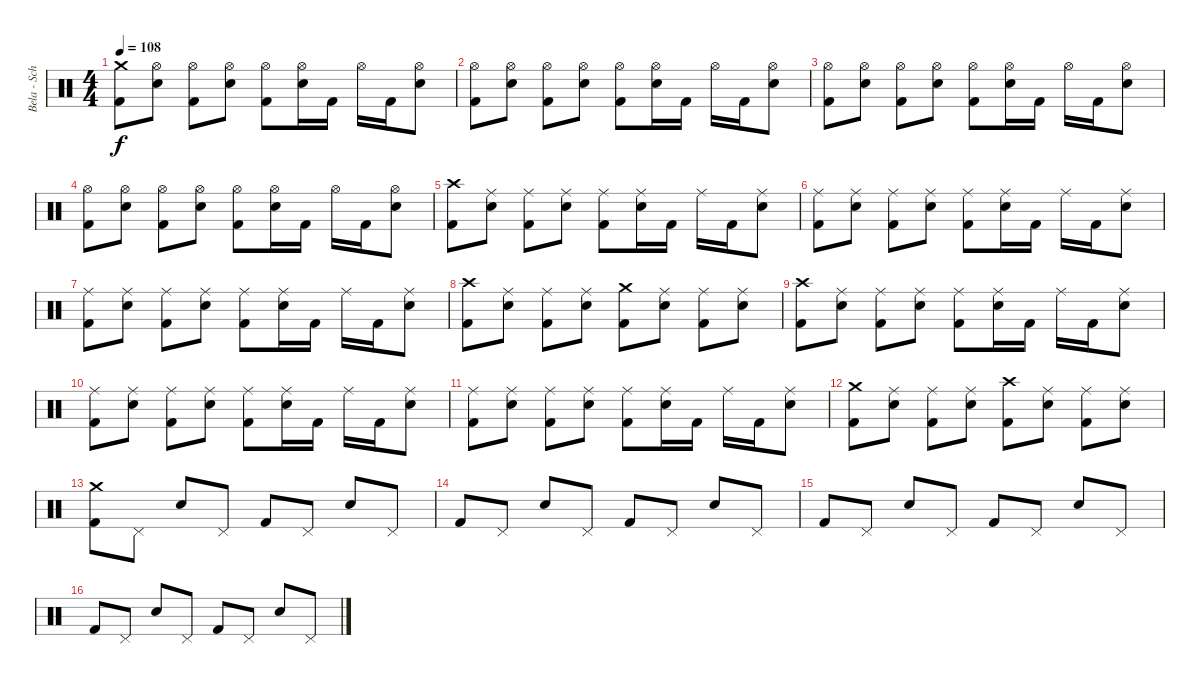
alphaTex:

\track ("Bela - Schlagzeug" "Bela - Sch") {instrument percussion}
\staff {score}
\articulation defaults
\ts (4 4)
\tempo 108
\clef neutral
\ks c
("Crash medium (hit)" "Kick (hit) 2").8{dy f} ("Hi-Hat (open)" "Snare (hit) 2").8 ("Hi-Hat (open)" "Kick (hit) 2").8 ("Hi-Hat (open)" "Snare (hit) 2").8 ("Hi-Hat (open)" "Kick (hit) 2").8 ("Hi-Hat (open)" "Snare (hit) 2").16 "Kick (hit) 2".16 "Hi-Hat (open)".16 "Kick (hit) 2".16 ("Hi-Hat (open)" "Snare (hit) 2").8 |
("Hi-Hat (open)" "Kick (hit) 2").8 ("Hi-Hat (open)" "Snare (hit) 2").8 ("Hi-Hat (open)" "Kick (hit) 2").8 ("Hi-Hat (open)" "Snare (hit) 2").8 ("Hi-Hat (open)" "Kick (hit) 2").8 ("Hi-Hat (open)" "Snare (hit) 2").16 "Kick (hit) 2".16 "Hi-Hat (open)".16 "Kick (hit) 2".16 ("Hi-Hat (open)" "Snare (hit) 2").8 |
("Hi-Hat (open)" "Kick (hit) 2").8 ("Hi-Hat (open)" "Snare (hit) 2").8 ("Hi-Hat (open)" "Kick (hit) 2").8 ("Hi-Hat (open)" "Snare (hit) 2").8 ("Hi-Hat (open)" "Kick (hit) 2").8 ("Hi-Hat (open)" "Snare (hit) 2").16 "Kick (hit) 2".16 "Hi-Hat (open)".16 "Kick (hit) 2".16 ("Hi-Hat (open)" "Snare (hit) 2").8 |
("Hi-Hat (open)" "Kick (hit) 2").8 ("Hi-Hat (open)" "Snare (hit) 2").8 ("Hi-Hat (open)" "Kick (hit) 2").8 ("Hi-Hat (open)" "Snare (hit) 2").8 ("Hi-Hat (open)" "Kick (hit) 2").8 ("Hi-Hat (open)" "Snare (hit) 2").16 "Kick (hit) 2".16 "Hi-Hat (open)".16 "Kick (hit) 2".16 ("Hi-Hat (open)" "Snare (hit) 2").8 |
("Crash high (hit)" "Kick (hit) 2").8 ("Ride (middle)" "Snare (hit) 2").8 ("Ride (middle)" "Kick (hit) 2").8 ("Ride (middle)" "Snare (hit) 2").8 ("Ride (middle)" "Kick (hit) 2").8 ("Ride (middle)" "Snare (hit) 2").16 "Kick (hit) 2".16 "Ride (middle)".16 "Kick (hit) 2".16 ("Ride (middle)" "Snare (hit) 2").8 |
("Ride (middle)" "Kick (hit) 2").8 ("Ride (middle)" "Snare (hit) 2").8 ("Ride (middle)" "Kick (hit) 2").8 ("Ride (middle)" "Snare (hit) 2").8 ("Ride (middle)" "Kick (hit) 2").8 ("Ride (middle)" "Snare (hit) 2").16 "Kick (hit) 2".16 "Ride (middle)".16 "Kick (hit) 2".16 ("Ride (middle)" "Snare (hit) 2").8 |
("Ride (middle)" "Kick (hit) 2").8 ("Ride (middle)" "Snare (hit) 2").8 ("Ride (middle)" "Kick (hit) 2").8 ("Ride (middle)" "Snare (hit) 2").8 ("Ride (middle)" "Kick (hit) 2").8 ("Ride (middle)" "Snare (hit) 2").16 "Kick (hit) 2".16 "Ride (middle)".16 "Kick (hit) 2".16 ("Ride (middle)" "Snare (hit) 2").8 |
("Crash high (hit)" "Kick (hit) 2").8 ("Ride (middle)" "Snare (hit) 2").8 ("Ride (middle)" "Kick (hit) 2").8 ("Ride (middle)" "Snare (hit) 2").8 ("Crash medium (hit)" "Kick (hit) 2").8 ("Ride (middle)" "Snare (hit) 2").8 ("Ride (middle)" "Kick (hit) 2").8 ("Ride (middle)" "Snare (hit) 2").8 |
("Crash high (hit)" "Kick (hit) 2").8 ("Ride (middle)" "Snare (hit) 2").8 ("Ride (middle)" "Kick (hit) 2").8 ("Ride (middle)" "Snare (hit) 2").8 ("Ride (middle)" "Kick (hit) 2").8 ("Ride (middle)" "Snare (hit) 2").16 "Kick (hit) 2".16 "Ride (middle)".16 "Kick (hit) 2".16 ("Ride (middle)" "Snare (hit) 2").8 |
("Ride (middle)" "Kick (hit) 2").8 ("Ride (middle)" "Snare (hit) 2").8 ("Ride (middle)" "Kick (hit) 2").8 ("Ride (middle)" "Snare (hit) 2").8 ("Ride (middle)" "Kick (hit) 2").8 ("Ride (middle)" "Snare (hit) 2").16 "Kick (hit) 2".16 "Ride (middle)".16 "Kick (hit) 2".16 ("Ride (middle)" "Snare (hit) 2").8 |
("Ride (middle)" "Kick (hit) 2").8 ("Ride (middle)" "Snare (hit) 2").8 ("Ride (middle)" "Kick (hit) 2").8 ("Ride (middle)" "Snare (hit) 2").8 ("Ride (middle)" "Kick (hit) 2").8 ("Ride (middle)" "Snare (hit) 2").16 "Kick (hit) 2".16 "Ride (middle)".16 "Kick (hit) 2".16 ("Ride (middle)" "Snare (hit) 2").8 |
("Crash medium (hit)" "Kick (hit) 2").8 ("Ride (middle)" "Snare (hit) 2").8 ("Ride (middle)" "Kick (hit) 2").8 ("Ride (middle)" "Snare (hit) 2").8 ("Crash high (hit)" "Kick (hit) 2").8 ("Ride (middle)" "Snare (hit) 2").8 ("Ride (middle)" "Kick (hit) 2").8 ("Ride (middle)" "Snare (hit) 2").8 |
("Crash medium (hit)" "Kick (hit) 2").8 "Pedal Hi-Hat (hit)".8 "Snare (hit) 2".8 "Pedal Hi-Hat (hit)".8 "Kick (hit) 2".8 "Pedal Hi-Hat (hit)".8 "Snare (hit) 2".8 "Pedal Hi-Hat (hit)".8 |
"Kick (hit) 2".8 "Pedal Hi-Hat (hit)".8 "Snare (hit) 2".8 "Pedal Hi-Hat (hit)".8 "Kick (hit) 2".8 "Pedal Hi-Hat (hit)".8 "Snare (hit) 2".8 "Pedal Hi-Hat (hit)".8 |
"Kick (hit) 2".8 "Pedal Hi-Hat (hit)".8 "Snare (hit) 2".8 "Pedal Hi-Hat (hit)".8 "Kick (hit) 2".8 "Pedal Hi-Hat (hit)".8 "Snare (hit) 2".8 "Pedal Hi-Hat (hit)".8 |
"Kick (hit) 2".8 "Pedal Hi-Hat (hit)".8 "Snare (hit) 2".8 "Pedal Hi-Hat (hit)".8 "Kick (hit) 2".8 "Pedal Hi-Hat (hit)".8 "Snare (hit) 2".8 "Pedal Hi-Hat (hit)".8
